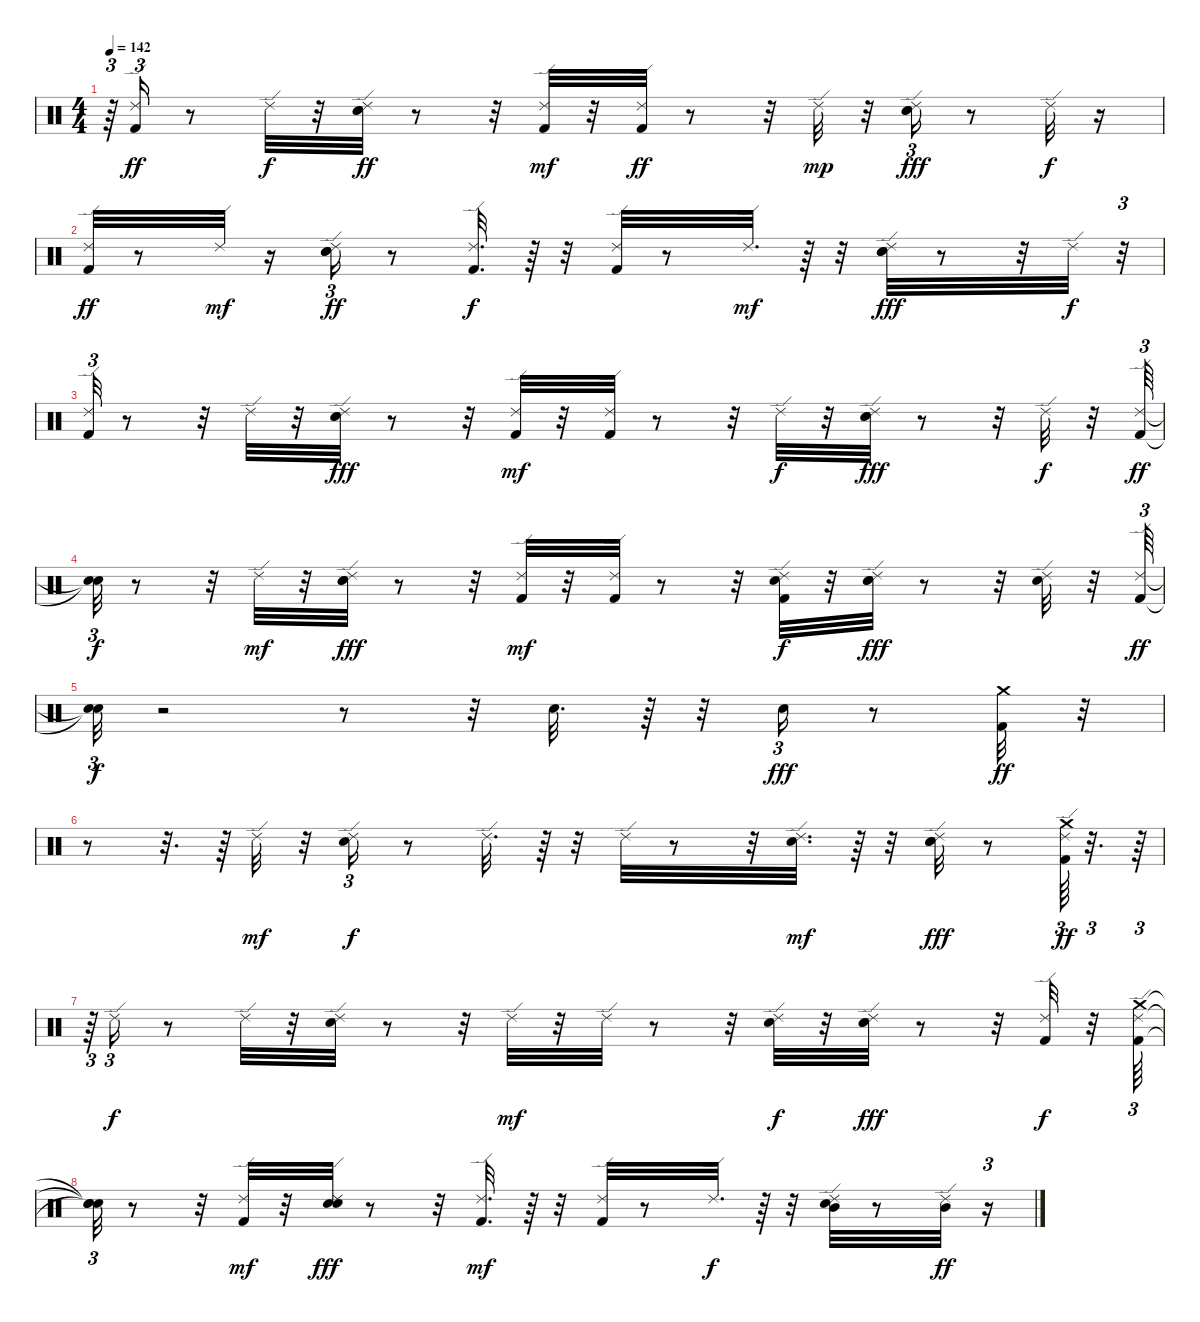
\track "" {instrument percussion}
\staff {score}
\articulation defaults
\ts (4 4)
\tempo 142
\clef neutral
\ks c
r.64{tu (3 2) dy fff} ("Ride (edge) 2" "Kick (hit) 2").16{tu (3 2) dy ff} r.8 "Ride (edge) 2".32{dy f} r.32 ("Hand Clap (hit)" "Electric Snare (hit)" "Ride (edge) 2").32{dy ff} r.8 r.32 ("Kick (hit) 2" "Ride (edge) 2").32{dy mf} r.32 ("Kick (hit) 2" "Ride (edge) 2").32{dy ff} r.8 r.32 "Ride (edge) 2".32{dy mp} r.32 ("Hand Clap (hit)" "Electric Snare (hit)" "Ride (edge) 2").16{tu (3 2) dy fff} r.8 "Ride (edge) 2".32{dy f} r.16 |
("Kick (hit) 2" "Ride (edge) 2").32{dy ff} r.8 "Ride (edge) 2".32{dy mf} r.16 ("Hand Clap (hit)" "Electric Snare (hit)" "Ride (edge) 2").16{tu (3 2) dy ff} r.8 ("Kick (hit) 2" "Ride (edge) 2").32{d dy f} r.64 r.32 ("Kick (hit) 2" "Ride (edge) 2").32 r.8 "Ride (edge) 2".32{d dy mf} r.64 r.32 ("Hand Clap (hit)" "Electric Snare (hit)" "Ride (edge) 2").32{dy fff} r.8 r.32 "Ride (edge) 2".32{dy f} r.32{tu (3 2)} |
("Ride (edge) 2" "Kick (hit) 2").32{tu (3 2)} r.8 r.32 "Ride (edge) 2".32 r.32 ("Electric Snare (hit)" "Hand Clap (hit)" "Ride (edge) 2").32{dy fff} r.8 r.32 ("Kick (hit) 2" "Ride (edge) 2").32{dy mf} r.32 ("Kick (hit) 2" "Ride (edge) 2").32 r.8 r.32 "Ride (edge) 2".32{dy f} r.32 ("Electric Snare (hit)" "Hand Clap (hit)" "Ride (edge) 2").32{dy fff} r.8 r.32 "Ride (edge) 2".32{dy f} r.32 ("Kick (hit) 2" "Ride (edge) 2").64{tu (3 2) dy ff} |
("Snare (hit)"{t} "Snare (hit)"{t}).32{tu (3 2) dy f} r.8 r.32 "Ride (edge) 2".32{dy mf} r.32 ("Hand Clap (hit)" "Electric Snare (hit)" "Ride (edge) 2").32{dy fff} r.8 r.32 ("Kick (hit) 2" "Ride (edge) 2").32{dy mf} r.32 ("Kick (hit) 2" "Ride (edge) 2").32 r.8 r.32 ("Electric Snare (hit)" "Ride (edge) 2" "Kick (hit) 2").32{dy f} r.32 ("Electric Snare (hit)" "Hand Clap (hit)" "Ride (edge) 2").32{dy fff} r.8 r.32 ("Electric Snare (hit)" "Ride (edge) 2").32 r.32 ("Ride (edge) 2" "Kick (hit) 2").64{tu (3 2) dy ff} |
("Snare (hit)"{t} "Snare (hit)"{t}).32{tu (3 2) dy f} r.2 r.8 r.32 "Electric Snare (hit)".32{d} r.64 r.32 "Electric Snare (hit)".16{tu (3 2) dy fff} r.8 ("Kick (hit) 2" "Crash medium (hit)").32{dy ff} r.32 |
r.8 r.32{d} r.64 "Ride (edge) 2".32{dy mf} r.32 ("Hand Clap (hit)" "Ride (edge) 2").16{tu (3 2) dy f} r.8 "Ride (edge) 2".32{d} r.64 r.32 "Ride (edge) 2".32 r.8 r.32 ("Electric Snare (hit)" "Ride (edge) 2").32{d dy mf} r.64 r.32 ("Hand Clap (hit)" "Electric Snare (hit)" "Ride (edge) 2").32{dy fff} r.8 ("Ride (edge) 2" "Crash medium (hit)" "Kick (hit) 2").64{tu (3 2) dy ff} r.32{d tu (3 2)} r.64{tu (3 2)} |
r.64{tu (3 2)} "Ride (edge) 2".16{tu (3 2) dy f} r.8 "Ride (edge) 2".32 r.32 ("Hand Clap (hit)" "Ride (edge) 2").32 r.8 r.32 "Ride (edge) 2".32{dy mf} r.32 "Ride (edge) 2".32 r.8 r.32 ("Electric Snare (hit)" "Ride (edge) 2").32{dy f} r.32 ("Electric Snare (hit)" "Hand Clap (hit)" "Ride (edge) 2").32{dy fff} r.8 r.32 ("Ride (edge) 2" "Kick (hit) 2").32{dy f} r.32 ("Crash medium (hit)" "Kick (hit) 2" "Ride (edge) 2").64{tu (3 2)} |
("Snare (hit)"{t} "Snare (hit)"{t} "Snare (hit)"{t}).32{tu (3 2)} r.8 r.32 ("Kick (hit) 2" "Ride (edge) 2").32{dy mf} r.32 ("Hand Clap (hit)" "Electric Snare (hit)" "Ride (edge) 2").32{dy fff} r.8 r.32 ("Kick (hit) 2" "Ride (edge) 2").32{d dy mf} r.64 r.32 ("Kick (hit) 2" "Ride (edge) 2").32 r.8 "Ride (edge) 2".32{d dy f} r.64 r.32 ("Mid Tom (hit)" "Hand Clap (hit)" "Ride (edge) 2").32 r.8 ("Ride (edge) 2" "Mid Tom (hit)").32{dy ff} r.16{tu (3 2)}
